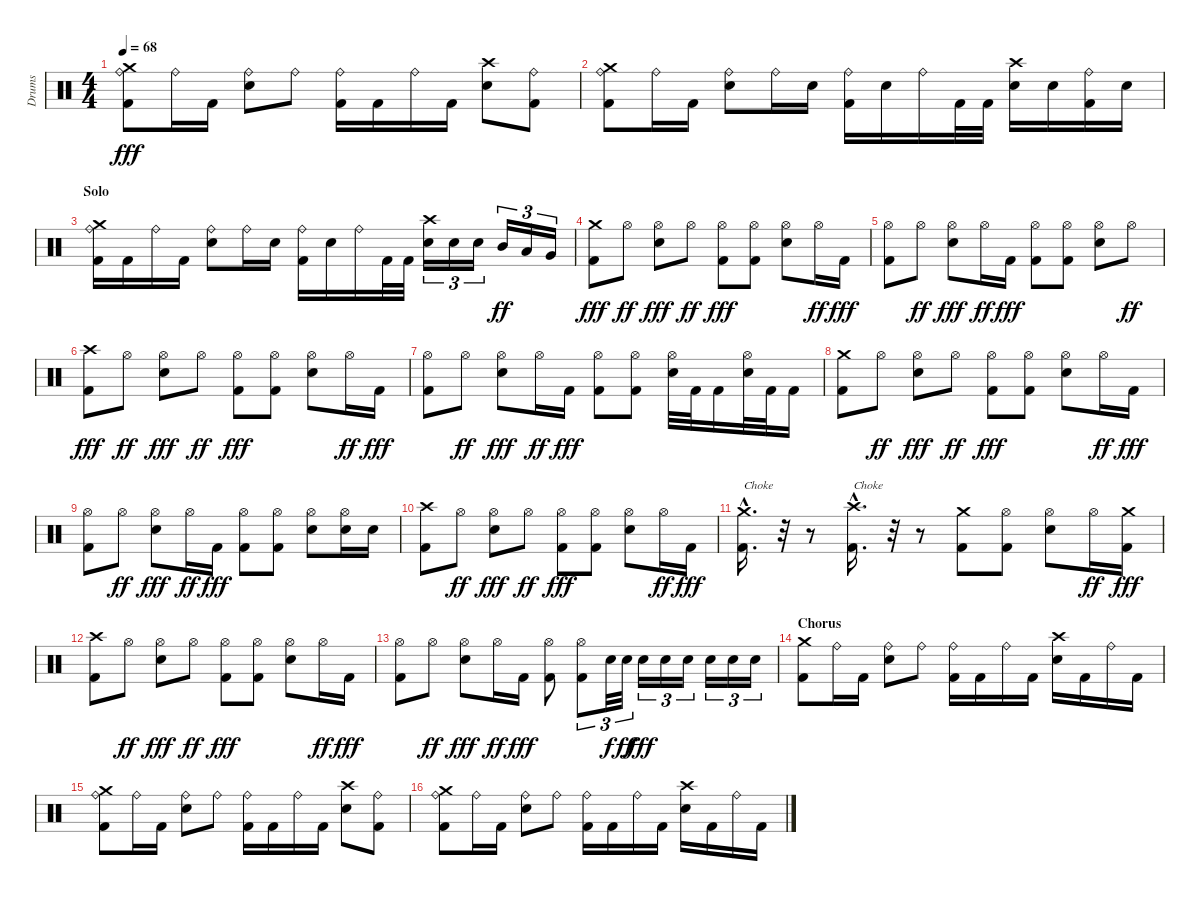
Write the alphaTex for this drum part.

\track ("Drums" "Drums") {instrument percussion}
\staff {score}
\articulation defaults
\ts (4 4)
\tempo 68
\clef neutral
\ks c
("Crash medium (hit)" "Ride (bell)" "Kick (hit) 2").8{dy fff} "Ride (bell)".16 "Kick (hit) 2".16 ("Ride (bell)" "Electric Snare (hit)").8 "Ride (bell)".8 ("Ride (bell)" "Kick (hit) 2").16 "Kick (hit) 2".16 "Ride (bell)".16 "Kick (hit) 2".16 ("Crash high (hit)" "Electric Snare (hit)").8 ("Ride (bell)" "Kick (hit) 2").8 |
("Crash medium (hit)" "Ride (bell)" "Kick (hit) 2").8 "Ride (bell)".16 "Kick (hit) 2".16 ("Ride (bell)" "Electric Snare (hit)").8 "Ride (bell)".16 "Electric Snare (hit)".16 ("Ride (bell)" "Kick (hit) 2").16 "Electric Snare (hit)".16 "Ride (bell)".16 "Kick (hit) 2".32 "Kick (hit) 2".32 ("Crash high (hit)" "Electric Snare (hit)").16 "Electric Snare (hit)".16 ("Ride (bell)" "Kick (hit) 2").16 "Electric Snare (hit)".16 |
\section ("" "Solo")
("Crash medium (hit)" "Ride (bell)" "Kick (hit) 2").16 "Kick (hit) 2".16 "Ride (bell)".16 "Kick (hit) 2".16 ("Ride (bell)" "Electric Snare (hit)").8 "Ride (bell)".16 "Electric Snare (hit)".16 ("Ride (bell)" "Kick (hit) 2").16 "Electric Snare (hit)".16 "Ride (bell)".16 "Kick (hit) 2".32 "Kick (hit) 2".32 ("Crash high (hit)" "Electric Snare (hit)").16{tu (3 2)} "Electric Snare (hit)".16{tu (3 2)} "Electric Snare (hit)".16{tu (3 2)} "Mid Tom (hit)".16{tu (3 2) dy ff} "Low Tom (hit)".16{tu (3 2)} "Very Low Tom (hit)".16{tu (3 2)} |
("Crash medium (hit)" "Kick (hit) 2").8{dy fff} "Hi-Hat (open)".8{dy ff} ("Hi-Hat (open)" "Electric Snare (hit)").8{dy fff} "Hi-Hat (open)".8{dy ff} ("Hi-Hat (open)" "Kick (hit) 2").8{dy fff} ("Hi-Hat (open)" "Kick (hit) 2").8 ("Hi-Hat (open)" "Electric Snare (hit)").8 "Hi-Hat (open)".16{dy ff} "Kick (hit) 2".16{dy fff} |
("Hi-Hat (open)" "Kick (hit) 2").8 "Hi-Hat (open)".8{dy ff} ("Hi-Hat (open)" "Electric Snare (hit)").8{dy fff} "Hi-Hat (open)".16{dy ff} "Kick (hit) 2".16{dy fff} ("Hi-Hat (open)" "Kick (hit) 2").8 ("Hi-Hat (open)" "Kick (hit) 2").8 ("Hi-Hat (open)" "Electric Snare (hit)").8 "Hi-Hat (open)".8{dy ff} |
("Crash high (hit)" "Kick (hit) 2").8{dy fff} "Hi-Hat (open)".8{dy ff} ("Hi-Hat (open)" "Electric Snare (hit)").8{dy fff} "Hi-Hat (open)".8{dy ff} ("Hi-Hat (open)" "Kick (hit) 2").8{dy fff} ("Hi-Hat (open)" "Kick (hit) 2").8 ("Hi-Hat (open)" "Electric Snare (hit)").8 "Hi-Hat (open)".16{dy ff} "Kick (hit) 2".16{dy fff} |
("Hi-Hat (open)" "Kick (hit) 2").8 "Hi-Hat (open)".8{dy ff} ("Hi-Hat (open)" "Electric Snare (hit)").8{dy fff} "Hi-Hat (open)".16{dy ff} "Kick (hit) 2".16{dy fff} ("Hi-Hat (open)" "Kick (hit) 2").8 ("Hi-Hat (open)" "Kick (hit) 2").8 ("Hi-Hat (open)" "Electric Snare (hit)").32 "Kick (hit) 2".32 "Kick (hit) 2".16 ("Hi-Hat (open)" "Electric Snare (hit)").32 "Kick (hit) 2".32 "Kick (hit) 2".16 |
("Crash medium (hit)" "Kick (hit) 2").8 "Hi-Hat (open)".8{dy ff} ("Hi-Hat (open)" "Electric Snare (hit)").8{dy fff} "Hi-Hat (open)".8{dy ff} ("Hi-Hat (open)" "Kick (hit) 2").8{dy fff} ("Hi-Hat (open)" "Kick (hit) 2").8 ("Hi-Hat (open)" "Electric Snare (hit)").8 "Hi-Hat (open)".16{dy ff} "Kick (hit) 2".16{dy fff} |
("Hi-Hat (open)" "Kick (hit) 2").8 "Hi-Hat (open)".8{dy ff} ("Hi-Hat (open)" "Electric Snare (hit)").8{dy fff} "Hi-Hat (open)".16{dy ff} "Kick (hit) 2".16{dy fff} ("Hi-Hat (open)" "Kick (hit) 2").8 ("Hi-Hat (open)" "Kick (hit) 2").8 ("Hi-Hat (open)" "Electric Snare (hit)").8 ("Hi-Hat (open)" "Electric Snare (hit)").16 "Electric Snare (hit)".16 |
("Crash high (hit)" "Kick (hit) 2").8 "Hi-Hat (open)".8{dy ff} ("Hi-Hat (open)" "Electric Snare (hit)").8{dy fff} "Hi-Hat (open)".8{dy ff} ("Hi-Hat (open)" "Kick (hit) 2").8{dy fff} ("Hi-Hat (open)" "Kick (hit) 2").8 ("Hi-Hat (open)" "Electric Snare (hit)").8 "Hi-Hat (open)".16{dy ff} "Kick (hit) 2".16{dy fff} |
("Crash medium (hit)"{hac} "Kick (hit) 2"{hac}).16{d txt "Choke"} r.32{volume 6} r.8 ("Crash high (hit)"{hac} "Kick (hit) 2"{hac}).16{d txt "Choke" volume 13} r.32 r.8{volume 6} ("Crash medium (hit)" "Kick (hit) 2").8{volume 13} ("Hi-Hat (open)" "Kick (hit) 2").8 ("Hi-Hat (open)" "Electric Snare (hit)").8 "Hi-Hat (open)".16{dy ff} ("Crash medium (hit)" "Kick (hit) 2").16{dy fff} |
("Crash high (hit)" "Kick (hit) 2").8{volume 13} "Hi-Hat (open)".8{dy ff} ("Hi-Hat (open)" "Electric Snare (hit)").8{dy fff} "Hi-Hat (open)".8{dy ff} ("Hi-Hat (open)" "Kick (hit) 2").8{dy fff} ("Hi-Hat (open)" "Kick (hit) 2").8 ("Hi-Hat (open)" "Electric Snare (hit)").8 "Hi-Hat (open)".16{dy ff} "Kick (hit) 2".16{dy fff} |
("Hi-Hat (open)" "Kick (hit) 2").8 "Hi-Hat (open)".8{dy ff} ("Hi-Hat (open)" "Electric Snare (hit)").8{dy fff} "Hi-Hat (open)".16{dy ff} "Kick (hit) 2".16{dy fff} ("Hi-Hat (open)" "Kick (hit) 2").8 ("Hi-Hat (open)" "Kick (hit) 2").8{tu (3 2)} "Electric Snare (hit)".32{tu (3 2) dy f} "Electric Snare (hit)".32{tu (3 2) dy ff} "Electric Snare (hit)".16{tu (3 2) dy fff} "Electric Snare (hit)".16{tu (3 2)} "Electric Snare (hit)".16{tu (3 2)} "Electric Snare (hit)".16{tu (3 2)} "Electric Snare (hit)".16{tu (3 2)} "Electric Snare (hit)".16{tu (3 2)} |
\section ("" "Chorus")
("Crash medium (hit)" "Kick (hit) 2").8 "Ride (bell)".16 "Kick (hit) 2".16 ("Ride (bell)" "Electric Snare (hit)").8 "Ride (bell)".8 ("Ride (bell)" "Kick (hit) 2").16 "Kick (hit) 2".16 "Ride (bell)".16 "Kick (hit) 2".16 ("Crash high (hit)" "Electric Snare (hit)").16 "Kick (hit) 2".16 "Ride (bell)".16 "Kick (hit) 2".16 |
("Crash medium (hit)" "Ride (bell)" "Kick (hit) 2").8 "Ride (bell)".16 "Kick (hit) 2".16 ("Ride (bell)" "Electric Snare (hit)").8 "Ride (bell)".8 ("Ride (bell)" "Kick (hit) 2").16 "Kick (hit) 2".16 "Ride (bell)".16 "Kick (hit) 2".16 ("Crash high (hit)" "Electric Snare (hit)").8 ("Ride (bell)" "Kick (hit) 2").8 |
("Crash medium (hit)" "Ride (bell)" "Kick (hit) 2").8 "Ride (bell)".16 "Kick (hit) 2".16 ("Ride (bell)" "Electric Snare (hit)").8 "Ride (bell)".8 ("Ride (bell)" "Kick (hit) 2").16 "Kick (hit) 2".16 "Ride (bell)".16 "Kick (hit) 2".16 ("Crash high (hit)" "Electric Snare (hit)").16 "Kick (hit) 2".16 "Ride (bell)".16 "Kick (hit) 2".16
